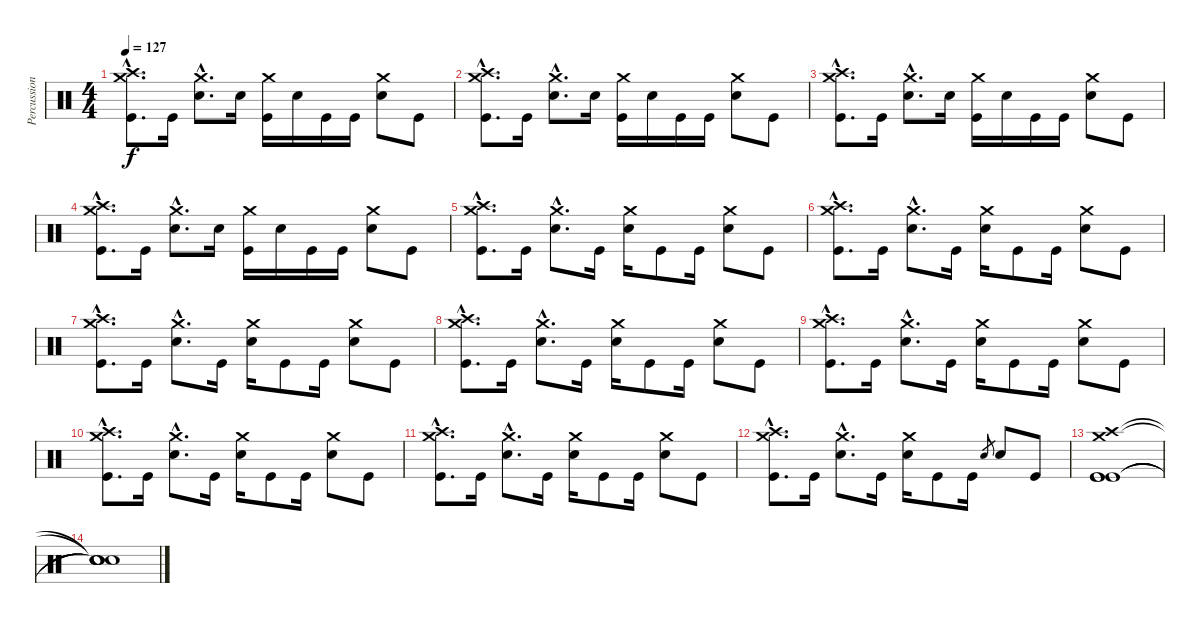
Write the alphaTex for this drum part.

\track ("Percussions" "Percussion") {instrument percussion}
\staff {score}
\articulation defaults
\ts (4 4)
\tempo 127
\clef neutral
\ks c
("Crash high (hit)"{hac} "Crash medium (hit)"{hac} "Kick (hit)"{hac}).8{d dy f} "Kick (hit)".16 ("Crash medium (hit)"{hac} "Snare (hit) 2"{hac}).8{d} "Snare (hit) 2".16 ("Crash medium (hit)" "Kick (hit)").16 "Snare (hit) 2".16 "Kick (hit)".16 "Kick (hit)".16 ("Crash medium (hit)" "Snare (hit) 2").8 "Kick (hit)".8 |
("Crash high (hit)"{hac} "Crash medium (hit)"{hac} "Kick (hit)"{hac}).8{d} "Kick (hit)".16 ("Crash medium (hit)"{hac} "Snare (hit) 2"{hac}).8{d} "Snare (hit) 2".16 ("Crash medium (hit)" "Kick (hit)").16 "Snare (hit) 2".16 "Kick (hit)".16 "Kick (hit)".16 ("Crash medium (hit)" "Snare (hit) 2").8 "Kick (hit)".8 |
("Crash high (hit)"{hac} "Crash medium (hit)"{hac} "Kick (hit)"{hac}).8{d} "Kick (hit)".16 ("Crash medium (hit)"{hac} "Snare (hit) 2"{hac}).8{d} "Snare (hit) 2".16 ("Crash medium (hit)" "Kick (hit)").16 "Snare (hit) 2".16 "Kick (hit)".16 "Kick (hit)".16 ("Crash medium (hit)" "Snare (hit) 2").8 "Kick (hit)".8 |
("Crash high (hit)"{hac} "Crash medium (hit)"{hac} "Kick (hit)"{hac}).8{d} "Kick (hit)".16 ("Crash medium (hit)"{hac} "Snare (hit) 2"{hac}).8{d} "Snare (hit) 2".16 ("Crash medium (hit)" "Kick (hit)").16 "Snare (hit) 2".16 "Kick (hit)".16 "Kick (hit)".16 ("Crash medium (hit)" "Snare (hit) 2").8 "Kick (hit)".8 |
("Crash high (hit)"{hac} "Crash medium (hit)"{hac} "Kick (hit)"{hac}).8{d} "Kick (hit)".16 ("Crash medium (hit)"{hac} "Snare (hit) 2"{hac}).8{d} "Kick (hit)".16 ("Crash medium (hit)" "Snare (hit) 2").16 "Kick (hit)".8 "Kick (hit)".16 ("Crash medium (hit)" "Snare (hit) 2").8 "Kick (hit)".8 |
("Crash high (hit)"{hac} "Crash medium (hit)"{hac} "Kick (hit)"{hac}).8{d} "Kick (hit)".16 ("Crash medium (hit)"{hac} "Snare (hit) 2"{hac}).8{d} "Kick (hit)".16 ("Crash medium (hit)" "Snare (hit) 2").16 "Kick (hit)".8 "Kick (hit)".16 ("Crash medium (hit)" "Snare (hit) 2").8 "Kick (hit)".8 |
("Crash high (hit)"{hac} "Crash medium (hit)"{hac} "Kick (hit)"{hac}).8{d} "Kick (hit)".16 ("Crash medium (hit)"{hac} "Snare (hit) 2"{hac}).8{d} "Kick (hit)".16 ("Crash medium (hit)" "Snare (hit) 2").16 "Kick (hit)".8 "Kick (hit)".16 ("Crash medium (hit)" "Snare (hit) 2").8 "Kick (hit)".8 |
("Crash high (hit)"{hac} "Crash medium (hit)"{hac} "Kick (hit)"{hac}).8{d} "Kick (hit)".16 ("Crash medium (hit)"{hac} "Snare (hit) 2"{hac}).8{d} "Kick (hit)".16 ("Crash medium (hit)" "Snare (hit) 2").16 "Kick (hit)".8 "Kick (hit)".16 ("Crash medium (hit)" "Snare (hit) 2").8 "Kick (hit)".8 |
("Crash high (hit)"{hac} "Crash medium (hit)"{hac} "Kick (hit)"{hac}).8{d} "Kick (hit)".16 ("Crash medium (hit)"{hac} "Snare (hit) 2"{hac}).8{d} "Kick (hit)".16 ("Crash medium (hit)" "Snare (hit) 2").16 "Kick (hit)".8 "Kick (hit)".16 ("Crash medium (hit)" "Snare (hit) 2").8 "Kick (hit)".8 |
("Crash high (hit)"{hac} "Crash medium (hit)"{hac} "Kick (hit)"{hac}).8{d} "Kick (hit)".16 ("Crash medium (hit)"{hac} "Snare (hit) 2"{hac}).8{d} "Kick (hit)".16 ("Crash medium (hit)" "Snare (hit) 2").16 "Kick (hit)".8 "Kick (hit)".16 ("Crash medium (hit)" "Snare (hit) 2").8 "Kick (hit)".8 |
("Crash high (hit)"{hac} "Crash medium (hit)"{hac} "Kick (hit)"{hac}).8{d} "Kick (hit)".16 ("Crash medium (hit)"{hac} "Snare (hit) 2"{hac}).8{d} "Kick (hit)".16 ("Crash medium (hit)" "Snare (hit) 2").16 "Kick (hit)".8 "Kick (hit)".16 ("Crash medium (hit)" "Snare (hit) 2").8 "Kick (hit)".8 |
("Crash high (hit)"{hac} "Crash medium (hit)"{hac} "Kick (hit)"{hac}).8{d} "Kick (hit)".16 ("Crash medium (hit)"{hac} "Snare (hit) 2"{hac}).8{d} "Kick (hit)".16 ("Crash medium (hit)" "Snare (hit) 2").16 "Kick (hit)".8 "Kick (hit)".16 "Snare (hit) 2".8{gr} "Snare (hit) 2".8 "Kick (hit)".8 |
("Crash high (hit)" "Crash medium (hit)" "Kick (hit)" "Kick (hit)" "Kick (hit)").1 |
("Snare (hit)"{t} "Snare (hit)"{t} "Snare (hit)"{t} "Snare (hit)"{t} "Snare (hit)"{t}).1
